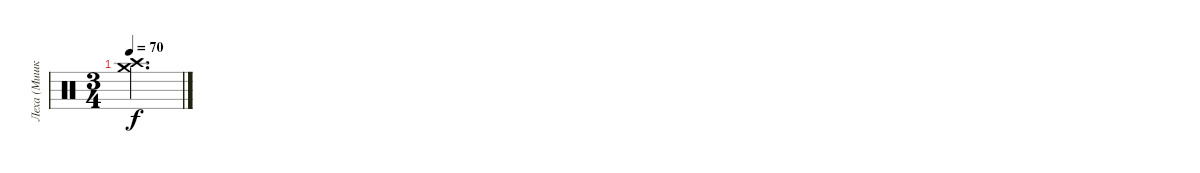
\track ("Леха (Мишка Гами)" "Леха (Мишк") {instrument percussion}
\staff {score}
\articulation defaults
\ts (3 4)
\tempo 70
\clef neutral
\ks c
("Crash high (hit)" "Crash medium (hit)").2{d dy f}
